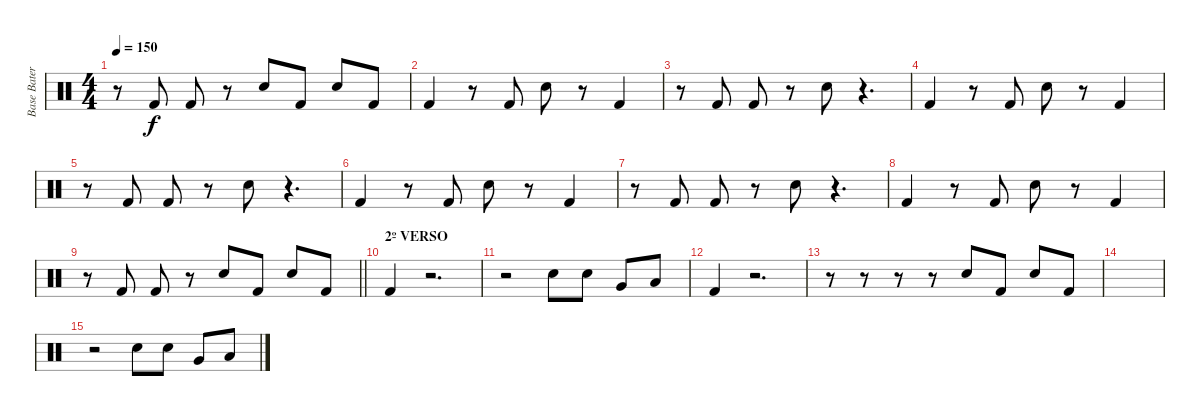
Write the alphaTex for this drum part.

\track ("Base Batería" "Base Bater") {instrument percussion}
\staff {score}
\articulation defaults
\ts (4 4)
\tempo 150
\clef neutral
\ks c
r.8{dy f} "Kick (hit) 2".8 "Kick (hit) 2".8 r.8 "Electric Snare (hit)".8 "Kick (hit) 2".8 "Electric Snare (hit)".8 "Kick (hit) 2".8 |
"Kick (hit) 2".4 r.8 "Kick (hit) 2".8 "Electric Snare (hit)".8 r.8 "Kick (hit) 2".4 |
r.8 "Kick (hit) 2".8 "Kick (hit) 2".8 r.8 "Electric Snare (hit)".8 r.4{d} |
"Kick (hit) 2".4 r.8 "Kick (hit) 2".8 "Electric Snare (hit)".8 r.8 "Kick (hit) 2".4 |
r.8 "Kick (hit) 2".8 "Kick (hit) 2".8 r.8 "Electric Snare (hit)".8 r.4{d} |
"Kick (hit) 2".4 r.8 "Kick (hit) 2".8 "Electric Snare (hit)".8 r.8 "Kick (hit) 2".4 |
r.8 "Kick (hit) 2".8 "Kick (hit) 2".8 r.8 "Electric Snare (hit)".8 r.4{d} |
"Kick (hit) 2".4 r.8 "Kick (hit) 2".8 "Electric Snare (hit)".8 r.8 "Kick (hit) 2".4 |
\barLineRight lightlight
r.8 "Kick (hit) 2".8 "Kick (hit) 2".8 r.8 "Electric Snare (hit)".8 "Kick (hit) 2".8 "Electric Snare (hit)".8 "Kick (hit) 2".8 |
\section ("" "2º VERSO")
"Kick (hit) 2".4 r.2{d} |
r.2 "Electric Snare (hit)".8 "Electric Snare (hit)".8 "Very Low Tom (hit)".8 "Low Floor Tom (hit)".8 |
"Kick (hit) 2".4 r.2{d} |
r.8 r.8 r.8 r.8 "Electric Snare (hit)".8 "Kick (hit) 2".8 "Electric Snare (hit)".8 "Kick (hit) 2".8 |
|
r.2 "Electric Snare (hit)".8 "Electric Snare (hit)".8 "Very Low Tom (hit)".8 "Low Floor Tom (hit)".8
